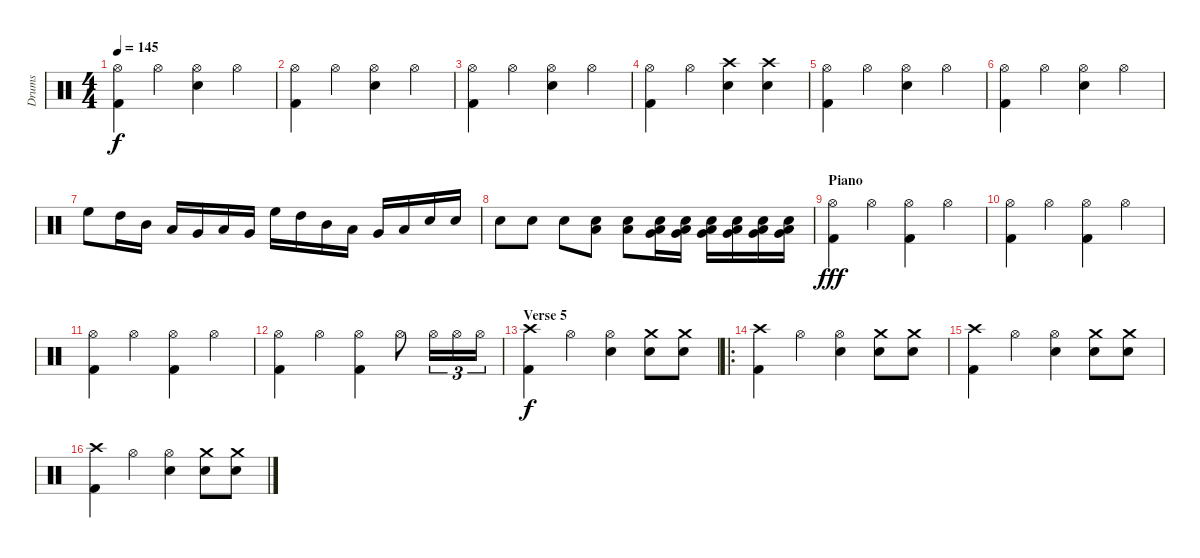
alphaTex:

\track ("Drums" "Drums") {instrument percussion}
\staff {score}
\articulation defaults
\ts (4 4)
\tempo 145
\clef neutral
\ks c
("Hi-Hat (open)" "Kick (hit) 2").4{dy f} "Hi-Hat (open)".4 ("Hi-Hat (open)" "Electric Snare (hit)").4 "Hi-Hat (open)".4 |
("Hi-Hat (open)" "Kick (hit) 2").4 "Hi-Hat (open)".4 ("Hi-Hat (open)" "Electric Snare (hit)").4 "Hi-Hat (open)".4 |
("Hi-Hat (open)" "Kick (hit) 2").4 "Hi-Hat (open)".4 ("Hi-Hat (open)" "Electric Snare (hit)").4 "Hi-Hat (open)".4 |
("Hi-Hat (open)" "Kick (hit) 2").4 "Hi-Hat (open)".4 ("Crash high (hit)" "Electric Snare (hit)").4 ("Crash high (hit)" "Electric Snare (hit)").4 |
("Hi-Hat (open)" "Kick (hit) 2").4 "Hi-Hat (open)".4 ("Hi-Hat (open)" "Electric Snare (hit)").4 "Hi-Hat (open)".4 |
("Hi-Hat (open)" "Kick (hit) 2").4 "Hi-Hat (open)".4 ("Hi-Hat (open)" "Electric Snare (hit)").4 "Hi-Hat (open)".4 |
"High Floor Tom (hit)".8 "High Tom (hit)".16 "Mid Tom (hit)".16 "Low Tom (hit)".16 "Very Low Tom (hit)".16 "Low Floor Tom (hit)".16 "Very Low Tom (hit)".16 "High Floor Tom (hit)".16 "High Tom (hit)".16 "Mid Tom (hit)".16 "Low Tom (hit)".16 "Very Low Tom (hit)".16 "Low Floor Tom (hit)".16 "Electric Snare (hit)".16 "Electric Snare (hit)".16 |
"Electric Snare (hit)".8 "Electric Snare (hit)".8 "Electric Snare (hit)".8 ("Low Floor Tom (hit)" "Electric Snare (hit)").8 ("Low Floor Tom (hit)" "Electric Snare (hit)").8 ("Very Low Tom (hit)" "Low Floor Tom (hit)" "Electric Snare (hit)").16 ("Very Low Tom (hit)" "Low Floor Tom (hit)" "Electric Snare (hit)").16 ("Very Low Tom (hit)" "Low Floor Tom (hit)" "Electric Snare (hit)").16 ("Very Low Tom (hit)" "Low Floor Tom (hit)" "Electric Snare (hit)").16 ("Very Low Tom (hit)" "Low Floor Tom (hit)" "Electric Snare (hit)").16 ("Very Low Tom (hit)" "Low Floor Tom (hit)" "Electric Snare (hit)").16 |
\section ("" "Piano")
("Hi-Hat (open)" "Kick (hit) 2").4{dy fff} "Hi-Hat (open)".4 ("Hi-Hat (open)" "Kick (hit) 2").4 "Hi-Hat (open)".4 |
("Hi-Hat (open)" "Kick (hit) 2").4 "Hi-Hat (open)".4 ("Hi-Hat (open)" "Kick (hit) 2").4 "Hi-Hat (open)".4 |
("Hi-Hat (open)" "Kick (hit) 2").4 "Hi-Hat (open)".4 ("Hi-Hat (open)" "Kick (hit) 2").4 "Hi-Hat (open)".4 |
("Hi-Hat (open)" "Kick (hit) 2").4 "Hi-Hat (open)".4 ("Hi-Hat (open)" "Kick (hit) 2").4 "Hi-Hat (open)".8 "Hi-Hat (open)".16{tu (3 2)} "Hi-Hat (open)".16{tu (3 2)} "Hi-Hat (open)".16{tu (3 2)} |
\section ("" "Verse 5")
("Crash high (hit)" "Kick (hit) 2").4{dy f} "Hi-Hat (open)".4 ("Hi-Hat (open)" "Electric Snare (hit)").4 ("Crash medium (hit)" "Electric Snare (hit)").8 ("Crash medium (hit)" "Electric Snare (hit)").8 |
\ro
("Crash high (hit)" "Kick (hit) 2").4 "Hi-Hat (open)".4 ("Hi-Hat (open)" "Electric Snare (hit)").4 ("Crash medium (hit)" "Electric Snare (hit)").8 ("Crash medium (hit)" "Electric Snare (hit)").8 |
("Crash high (hit)" "Kick (hit) 2").4 "Hi-Hat (open)".4 ("Hi-Hat (open)" "Electric Snare (hit)").4 ("Crash medium (hit)" "Electric Snare (hit)").8 ("Crash medium (hit)" "Electric Snare (hit)").8 |
("Crash high (hit)" "Kick (hit) 2").4 "Hi-Hat (open)".4 ("Hi-Hat (open)" "Electric Snare (hit)").4 ("Crash medium (hit)" "Electric Snare (hit)").8 ("Crash medium (hit)" "Electric Snare (hit)").8
